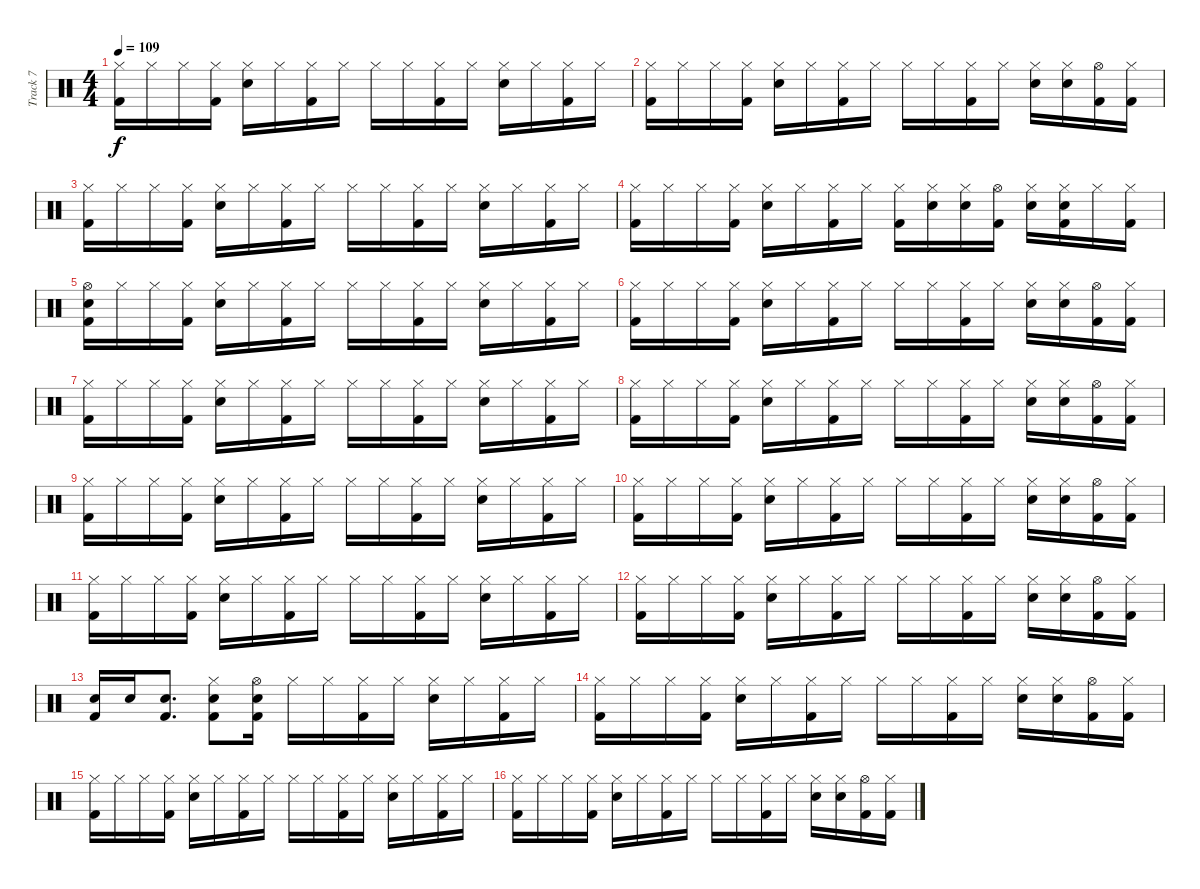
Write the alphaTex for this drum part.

\track ("Track 7" "Track 7") {instrument percussion}
\staff {score}
\articulation defaults
\ts (4 4)
\tempo 109
\clef neutral
\ks c
("Hi-Hat (closed)" "Kick (hit) 2").16{dy f} "Hi-Hat (closed)".16 "Hi-Hat (closed)".16 ("Hi-Hat (closed)" "Kick (hit) 2").16 ("Hi-Hat (closed)" "Snare (hit) 2").16 "Hi-Hat (closed)".16 ("Hi-Hat (closed)" "Kick (hit) 2").16 "Hi-Hat (closed)".16 "Hi-Hat (closed)".16 "Hi-Hat (closed)".16 ("Hi-Hat (closed)" "Kick (hit) 2").16 "Hi-Hat (closed)".16 ("Hi-Hat (closed)" "Snare (hit) 2").16 "Hi-Hat (closed)".16 ("Hi-Hat (closed)" "Kick (hit) 2").16 "Hi-Hat (closed)".16 |
("Hi-Hat (closed)" "Kick (hit) 2").16 "Hi-Hat (closed)".16 "Hi-Hat (closed)".16 ("Hi-Hat (closed)" "Kick (hit) 2").16 ("Hi-Hat (closed)" "Snare (hit) 2").16 "Hi-Hat (closed)".16 ("Hi-Hat (closed)" "Kick (hit) 2").16 "Hi-Hat (closed)".16 "Hi-Hat (closed)".16 "Hi-Hat (closed)".16 ("Hi-Hat (closed)" "Kick (hit) 2").16 "Hi-Hat (closed)".16 ("Hi-Hat (closed)" "Snare (hit) 2").16 ("Hi-Hat (closed)" "Snare (hit) 2").16 ("Hi-Hat (open)" "Kick (hit) 2").16 ("Hi-Hat (closed)" "Kick (hit) 2").16 |
("Hi-Hat (closed)" "Kick (hit) 2").16 "Hi-Hat (closed)".16 "Hi-Hat (closed)".16 ("Hi-Hat (closed)" "Kick (hit) 2").16 ("Hi-Hat (closed)" "Snare (hit) 2").16 "Hi-Hat (closed)".16 ("Hi-Hat (closed)" "Kick (hit) 2").16 "Hi-Hat (closed)".16 "Hi-Hat (closed)".16 "Hi-Hat (closed)".16 ("Hi-Hat (closed)" "Kick (hit) 2").16 "Hi-Hat (closed)".16 ("Hi-Hat (closed)" "Snare (hit) 2").16 "Hi-Hat (closed)".16 ("Hi-Hat (closed)" "Kick (hit) 2").16 "Hi-Hat (closed)".16 |
("Hi-Hat (closed)" "Kick (hit) 2").16 "Hi-Hat (closed)".16 "Hi-Hat (closed)".16 ("Hi-Hat (closed)" "Kick (hit) 2").16 ("Hi-Hat (closed)" "Snare (hit) 2").16 "Hi-Hat (closed)".16 ("Hi-Hat (closed)" "Kick (hit) 2").16 "Hi-Hat (closed)".16 ("Hi-Hat (closed)" "Kick (hit) 2").16 ("Hi-Hat (closed)" "Snare (hit) 2").16 ("Hi-Hat (closed)" "Snare (hit) 2").16 ("Hi-Hat (open)" "Kick (hit) 2").16 ("Hi-Hat (closed)" "Snare (hit) 2").16 ("Hi-Hat (closed)" "Snare (hit) 2" "Kick (hit) 2").16 "Hi-Hat (closed)".16 ("Hi-Hat (closed)" "Kick (hit) 2").16 |
("Hi-Hat (open)" "Snare (hit) 2" "Kick (hit) 2").16 "Hi-Hat (closed)".16 "Hi-Hat (closed)".16 ("Hi-Hat (closed)" "Kick (hit) 2").16 ("Hi-Hat (closed)" "Snare (hit) 2").16 "Hi-Hat (closed)".16 ("Hi-Hat (closed)" "Kick (hit) 2").16 "Hi-Hat (closed)".16 "Hi-Hat (closed)".16 "Hi-Hat (closed)".16 ("Hi-Hat (closed)" "Kick (hit) 2").16 "Hi-Hat (closed)".16 ("Hi-Hat (closed)" "Snare (hit) 2").16 "Hi-Hat (closed)".16 ("Hi-Hat (closed)" "Kick (hit) 2").16 "Hi-Hat (closed)".16 |
("Hi-Hat (closed)" "Kick (hit) 2").16 "Hi-Hat (closed)".16 "Hi-Hat (closed)".16 ("Hi-Hat (closed)" "Kick (hit) 2").16 ("Hi-Hat (closed)" "Snare (hit) 2").16 "Hi-Hat (closed)".16 ("Hi-Hat (closed)" "Kick (hit) 2").16 "Hi-Hat (closed)".16 "Hi-Hat (closed)".16 "Hi-Hat (closed)".16 ("Hi-Hat (closed)" "Kick (hit) 2").16 "Hi-Hat (closed)".16 ("Hi-Hat (closed)" "Snare (hit) 2").16 ("Hi-Hat (closed)" "Snare (hit) 2").16 ("Hi-Hat (open)" "Kick (hit) 2").16 ("Hi-Hat (closed)" "Kick (hit) 2").16 |
("Hi-Hat (closed)" "Kick (hit) 2").16 "Hi-Hat (closed)".16 "Hi-Hat (closed)".16 ("Hi-Hat (closed)" "Kick (hit) 2").16 ("Hi-Hat (closed)" "Snare (hit) 2").16 "Hi-Hat (closed)".16 ("Hi-Hat (closed)" "Kick (hit) 2").16 "Hi-Hat (closed)".16 "Hi-Hat (closed)".16 "Hi-Hat (closed)".16 ("Hi-Hat (closed)" "Kick (hit) 2").16 "Hi-Hat (closed)".16 ("Hi-Hat (closed)" "Snare (hit) 2").16 "Hi-Hat (closed)".16 ("Hi-Hat (closed)" "Kick (hit) 2").16 "Hi-Hat (closed)".16 |
("Hi-Hat (closed)" "Kick (hit) 2").16 "Hi-Hat (closed)".16 "Hi-Hat (closed)".16 ("Hi-Hat (closed)" "Kick (hit) 2").16 ("Hi-Hat (closed)" "Snare (hit) 2").16 "Hi-Hat (closed)".16 ("Hi-Hat (closed)" "Kick (hit) 2").16 "Hi-Hat (closed)".16 "Hi-Hat (closed)".16 "Hi-Hat (closed)".16 ("Hi-Hat (closed)" "Kick (hit) 2").16 "Hi-Hat (closed)".16 ("Hi-Hat (closed)" "Snare (hit) 2").16 ("Hi-Hat (closed)" "Snare (hit) 2").16 ("Hi-Hat (open)" "Kick (hit) 2").16 ("Hi-Hat (closed)" "Kick (hit) 2").16 |
("Hi-Hat (closed)" "Kick (hit) 2").16 "Hi-Hat (closed)".16 "Hi-Hat (closed)".16 ("Hi-Hat (closed)" "Kick (hit) 2").16 ("Hi-Hat (closed)" "Snare (hit) 2").16 "Hi-Hat (closed)".16 ("Hi-Hat (closed)" "Kick (hit) 2").16 "Hi-Hat (closed)".16 "Hi-Hat (closed)".16 "Hi-Hat (closed)".16 ("Hi-Hat (closed)" "Kick (hit) 2").16 "Hi-Hat (closed)".16 ("Hi-Hat (closed)" "Snare (hit) 2").16 "Hi-Hat (closed)".16 ("Hi-Hat (closed)" "Kick (hit) 2").16 "Hi-Hat (closed)".16 |
("Hi-Hat (closed)" "Kick (hit) 2").16 "Hi-Hat (closed)".16 "Hi-Hat (closed)".16 ("Hi-Hat (closed)" "Kick (hit) 2").16 ("Hi-Hat (closed)" "Snare (hit) 2").16 "Hi-Hat (closed)".16 ("Hi-Hat (closed)" "Kick (hit) 2").16 "Hi-Hat (closed)".16 "Hi-Hat (closed)".16 "Hi-Hat (closed)".16 ("Hi-Hat (closed)" "Kick (hit) 2").16 "Hi-Hat (closed)".16 ("Hi-Hat (closed)" "Snare (hit) 2").16 ("Hi-Hat (closed)" "Snare (hit) 2").16 ("Hi-Hat (open)" "Kick (hit) 2").16 ("Hi-Hat (closed)" "Kick (hit) 2").16 |
("Hi-Hat (closed)" "Kick (hit) 2").16 "Hi-Hat (closed)".16 "Hi-Hat (closed)".16 ("Hi-Hat (closed)" "Kick (hit) 2").16 ("Hi-Hat (closed)" "Snare (hit) 2").16 "Hi-Hat (closed)".16 ("Hi-Hat (closed)" "Kick (hit) 2").16 "Hi-Hat (closed)".16 "Hi-Hat (closed)".16 "Hi-Hat (closed)".16 ("Hi-Hat (closed)" "Kick (hit) 2").16 "Hi-Hat (closed)".16 ("Hi-Hat (closed)" "Snare (hit) 2").16 "Hi-Hat (closed)".16 ("Hi-Hat (closed)" "Kick (hit) 2").16 "Hi-Hat (closed)".16 |
("Hi-Hat (closed)" "Kick (hit) 2").16 "Hi-Hat (closed)".16 "Hi-Hat (closed)".16 ("Hi-Hat (closed)" "Kick (hit) 2").16 ("Hi-Hat (closed)" "Snare (hit) 2").16 "Hi-Hat (closed)".16 ("Hi-Hat (closed)" "Kick (hit) 2").16 "Hi-Hat (closed)".16 "Hi-Hat (closed)".16 "Hi-Hat (closed)".16 ("Hi-Hat (closed)" "Kick (hit) 2").16 "Hi-Hat (closed)".16 ("Hi-Hat (closed)" "Snare (hit) 2").16 ("Hi-Hat (closed)" "Snare (hit) 2").16 ("Hi-Hat (open)" "Kick (hit) 2").16 ("Hi-Hat (closed)" "Kick (hit) 2").16 |
("Snare (hit) 2" "Kick (hit) 2").16 "Snare (hit) 2".16 ("Snare (hit) 2" "Kick (hit) 2").8{d} ("Hi-Hat (closed)" "Snare (hit) 2" "Kick (hit) 2").8 ("Hi-Hat (open)" "Snare (hit) 2" "Kick (hit) 2").16 "Hi-Hat (closed)".16 "Hi-Hat (closed)".16 ("Hi-Hat (closed)" "Kick (hit) 2").16 "Hi-Hat (closed)".16 ("Hi-Hat (closed)" "Snare (hit) 2").16 "Hi-Hat (closed)".16 ("Hi-Hat (closed)" "Kick (hit) 2").16 "Hi-Hat (closed)".16 |
("Hi-Hat (closed)" "Kick (hit) 2").16 "Hi-Hat (closed)".16 "Hi-Hat (closed)".16 ("Hi-Hat (closed)" "Kick (hit) 2").16 ("Hi-Hat (closed)" "Snare (hit) 2").16 "Hi-Hat (closed)".16 ("Hi-Hat (closed)" "Kick (hit) 2").16 "Hi-Hat (closed)".16 "Hi-Hat (closed)".16 "Hi-Hat (closed)".16 ("Hi-Hat (closed)" "Kick (hit) 2").16 "Hi-Hat (closed)".16 ("Hi-Hat (closed)" "Snare (hit) 2").16 ("Hi-Hat (closed)" "Snare (hit) 2").16 ("Hi-Hat (open)" "Kick (hit) 2").16 ("Hi-Hat (closed)" "Kick (hit) 2").16 |
("Hi-Hat (closed)" "Kick (hit) 2").16 "Hi-Hat (closed)".16 "Hi-Hat (closed)".16 ("Hi-Hat (closed)" "Kick (hit) 2").16 ("Hi-Hat (closed)" "Snare (hit) 2").16 "Hi-Hat (closed)".16 ("Hi-Hat (closed)" "Kick (hit) 2").16 "Hi-Hat (closed)".16 "Hi-Hat (closed)".16 "Hi-Hat (closed)".16 ("Hi-Hat (closed)" "Kick (hit) 2").16 "Hi-Hat (closed)".16 ("Hi-Hat (closed)" "Snare (hit) 2").16 "Hi-Hat (closed)".16 ("Hi-Hat (closed)" "Kick (hit) 2").16 "Hi-Hat (closed)".16 |
("Hi-Hat (closed)" "Kick (hit) 2").16 "Hi-Hat (closed)".16 "Hi-Hat (closed)".16 ("Hi-Hat (closed)" "Kick (hit) 2").16 ("Hi-Hat (closed)" "Snare (hit) 2").16 "Hi-Hat (closed)".16 ("Hi-Hat (closed)" "Kick (hit) 2").16 "Hi-Hat (closed)".16 "Hi-Hat (closed)".16 "Hi-Hat (closed)".16 ("Hi-Hat (closed)" "Kick (hit) 2").16 "Hi-Hat (closed)".16 ("Hi-Hat (closed)" "Snare (hit) 2").16 ("Hi-Hat (closed)" "Snare (hit) 2").16 ("Hi-Hat (open)" "Kick (hit) 2").16 ("Hi-Hat (closed)" "Kick (hit) 2").16
